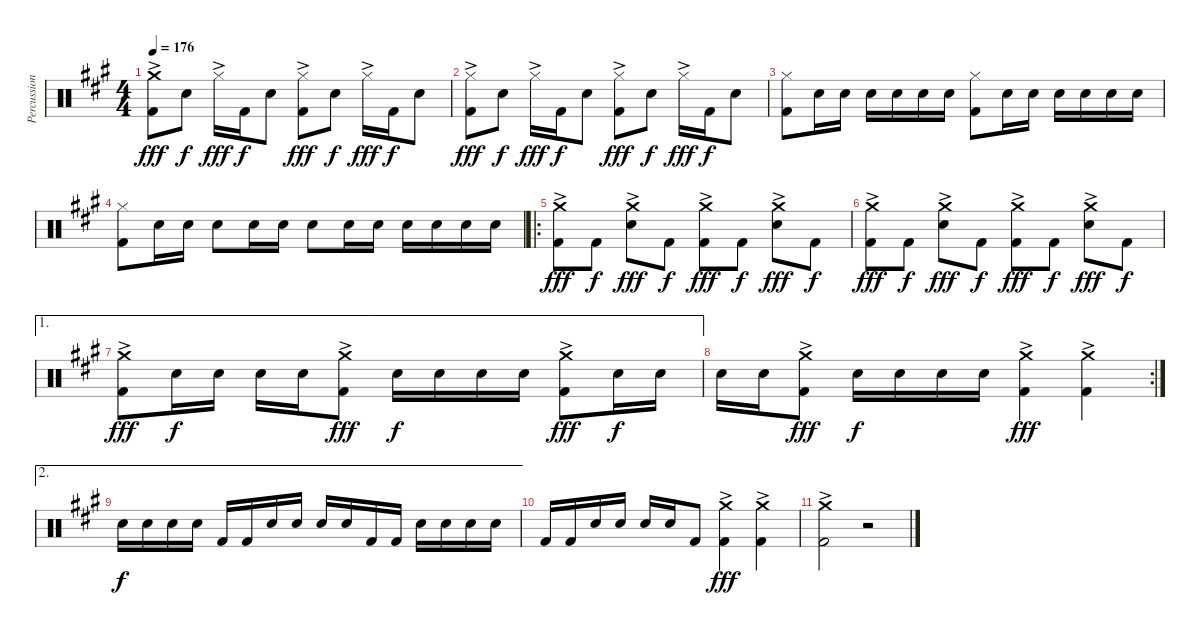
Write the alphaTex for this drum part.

\track ("Percussion" "Percussion") {instrument percussion}
\staff {score}
\articulation defaults
\ts (4 4)
\tempo 176
\clef neutral
\ks a
("Crash medium (hit)"{ac} "Kick (hit) 2").8{dy fff} "Snare (hit) 2".8{dy f} "Hi-Hat (closed)"{ac}.16{dy fff} "Kick (hit) 2".16{dy f} "Snare (hit) 2".8 ("Hi-Hat (closed)"{ac} "Kick (hit) 2").8{dy fff} "Snare (hit) 2".8{dy f} "Hi-Hat (closed)"{ac}.16{dy fff} "Kick (hit) 2".16{dy f} "Snare (hit) 2".8 |
("Hi-Hat (closed)"{ac} "Kick (hit) 2").8{dy fff} "Snare (hit) 2".8{dy f} "Hi-Hat (closed)"{ac}.16{dy fff} "Kick (hit) 2".16{dy f} "Snare (hit) 2".8 ("Hi-Hat (closed)"{ac} "Kick (hit) 2").8{dy fff} "Snare (hit) 2".8{dy f} "Hi-Hat (closed)"{ac}.16{dy fff} "Kick (hit) 2".16{dy f} "Snare (hit) 2".8 |
("Hi-Hat (closed)" "Kick (hit) 2").8 "Snare (hit) 2".16 "Snare (hit) 2".16 "Snare (hit) 2".16 "Snare (hit) 2".16 "Snare (hit) 2".16 "Snare (hit) 2".16 ("Hi-Hat (closed)" "Kick (hit) 2").8 "Snare (hit) 2".16 "Snare (hit) 2".16 "Snare (hit) 2".16 "Snare (hit) 2".16 "Snare (hit) 2".16 "Snare (hit) 2".16 |
("Hi-Hat (closed)" "Kick (hit) 2").8 "Snare (hit) 2".16 "Snare (hit) 2".16 "Snare (hit) 2".8 "Snare (hit) 2".16 "Snare (hit) 2".16 "Snare (hit) 2".8 "Snare (hit) 2".16 "Snare (hit) 2".16 "Snare (hit) 2".16 "Snare (hit) 2".16 "Snare (hit) 2".16 "Snare (hit) 2".16 |
\ro
("Crash medium (hit)"{ac} "Kick (hit) 2").8{dy fff} "Kick (hit) 2".8{dy f} ("Crash medium (hit)"{ac} "Snare (hit) 2").8{dy fff} "Kick (hit) 2".8{dy f} ("Crash medium (hit)"{ac} "Kick (hit) 2").8{dy fff} "Kick (hit) 2".8{dy f} ("Crash medium (hit)"{ac} "Snare (hit) 2").8{dy fff} "Kick (hit) 2".8{dy f} |
("Crash medium (hit)"{ac} "Kick (hit) 2").8{dy fff} "Kick (hit) 2".8{dy f} ("Crash medium (hit)"{ac} "Snare (hit) 2").8{dy fff} "Kick (hit) 2".8{dy f} ("Crash medium (hit)"{ac} "Kick (hit) 2").8{dy fff} "Kick (hit) 2".8{dy f} ("Crash medium (hit)"{ac} "Snare (hit) 2").8{dy fff} "Kick (hit) 2".8{dy f} |
\ae 1
("Crash medium (hit)"{ac} "Kick (hit) 2"{ac}).8{dy fff} "Snare (hit) 2".16{dy f} "Snare (hit) 2".16 "Snare (hit) 2".16 "Snare (hit) 2".16 ("Crash medium (hit)"{ac} "Kick (hit) 2"{ac}).8{dy fff} "Snare (hit) 2".16{dy f} "Snare (hit) 2".16 "Snare (hit) 2".16 "Snare (hit) 2".16 ("Crash medium (hit)"{ac} "Kick (hit) 2"{ac}).8{dy fff} "Snare (hit) 2".16{dy f} "Snare (hit) 2".16 |
\rc 2 "Snare (hit) 2".16 "Snare (hit) 2".16
("Crash medium (hit)"{ac} "Kick (hit) 2"{ac}).8{dy fff} "Snare (hit) 2".16{dy f} "Snare (hit) 2".16 "Snare (hit) 2".16 "Snare (hit) 2".16 ("Crash medium (hit)"{ac} "Kick (hit) 2"{ac}).4{dy fff} ("Crash medium (hit)"{ac} "Kick (hit) 2"{ac}).4 |
\ae 2 "Snare (hit) 2".16{dy f} "Snare (hit) 2".16 "Snare (hit) 2".16 "Snare (hit) 2".16 "Kick (hit) 2".16 "Kick (hit) 2".16 "Snare (hit) 2".16 "Snare (hit) 2".16 "Snare (hit) 2".16 "Snare (hit) 2".16 "Kick (hit) 2".16 "Kick (hit) 2".16 "Snare (hit) 2".16 "Snare (hit) 2".16 "Snare (hit) 2".16 "Snare (hit) 2".16
|
"Kick (hit) 2".16 "Kick (hit) 2".16 "Snare (hit) 2".16 "Snare (hit) 2".16 "Snare (hit) 2".16 "Snare (hit) 2".16 "Kick (hit) 2".8 ("Crash medium (hit)"{ac} "Kick (hit) 2"{ac}).4{dy fff} ("Crash medium (hit)"{ac} "Kick (hit) 2"{ac}).4 |
("Crash medium (hit)"{ac} "Kick (hit) 2"{ac}).2 r.2
